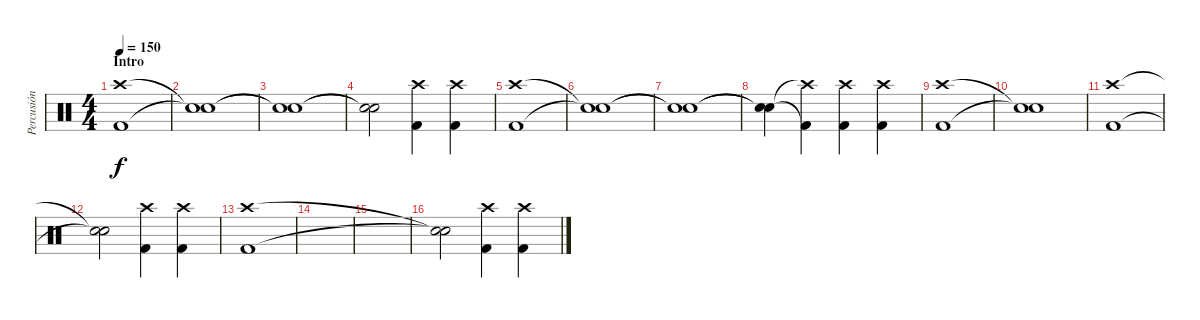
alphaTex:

\track ("Percusión" "Percusión") {instrument percussion}
\staff {score}
\articulation defaults
\ts (4 4)
\section ("" "Intro")
\tempo 150
\clef neutral
\ks c
("Crash high (hit)" "Kick (hit) 2").1{dy f} |
("Snare (hit)"{t} "Snare (hit)"{t}).1 |
("Snare (hit)"{t} "Snare (hit)"{t}).1 |
("Snare (hit)"{t} "Snare (hit)"{t}).2 ("Crash high (hit)" "Kick (hit) 2").4 ("Crash high (hit)" "Kick (hit) 2").4 |
("Crash high (hit)" "Kick (hit) 2").1 |
("Snare (hit)"{t} "Snare (hit)"{t}).1 |
("Snare (hit)"{t} "Snare (hit)"{t}).1 |
("Snare (hit)"{t} "Snare (hit)"{t}).4 ("Crash high (hit)"{t} "Kick (hit) 2"{t}).4 ("Crash high (hit)" "Kick (hit) 2").4 ("Crash high (hit)" "Kick (hit) 2").4 |
("Crash high (hit)" "Kick (hit) 2").1 |
("Snare (hit)"{t} "Snare (hit)"{t}).1 |
("Crash high (hit)" "Kick (hit) 2").1 |
("Snare (hit)"{t} "Snare (hit)"{t}).2 ("Crash high (hit)" "Kick (hit) 2").4 ("Crash high (hit)" "Kick (hit) 2").4 |
("Crash high (hit)" "Kick (hit) 2").1 |
|
|
("Snare (hit)"{t} "Snare (hit)"{t}).2 ("Crash high (hit)" "Kick (hit) 2").4 ("Crash high (hit)" "Kick (hit) 2").4
